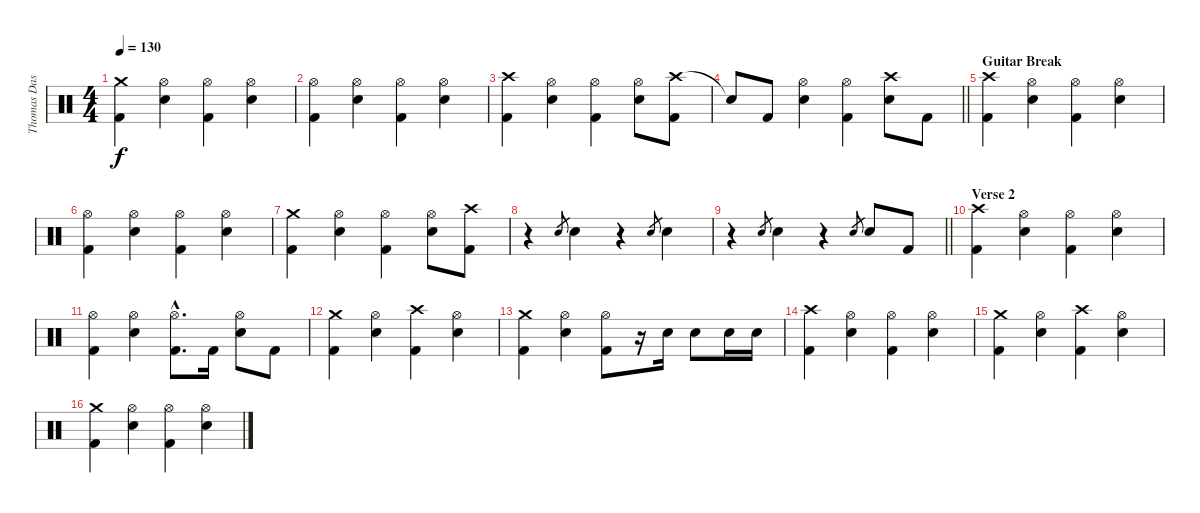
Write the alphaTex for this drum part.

\track ("Thomas Das Neves (Drums)" "Thomas Das") {instrument percussion}
\staff {score}
\articulation defaults
\ts (4 4)
\tempo 130
\clef neutral
\ks c
("Crash medium (hit)" "Kick (hit) 2").4{dy f} ("Hi-Hat (open)" "Snare (hit) 2").4 ("Hi-Hat (open)" "Kick (hit) 2").4 ("Hi-Hat (open)" "Snare (hit) 2").4 |
("Hi-Hat (open)" "Kick (hit) 2").4 ("Hi-Hat (open)" "Snare (hit) 2").4 ("Hi-Hat (open)" "Kick (hit) 2").4 ("Hi-Hat (open)" "Snare (hit) 2").4 |
("Crash high (hit)" "Kick (hit) 2").4 ("Hi-Hat (open)" "Snare (hit) 2").4 ("Hi-Hat (open)" "Kick (hit) 2").4 ("Hi-Hat (open)" "Snare (hit) 2").8 ("Crash high (hit)" "Kick (hit) 2").8 |
\barLineRight lightlight "Snare (hit)"{t}.8 "Kick (hit) 2".8
("Hi-Hat (open)" "Snare (hit) 2").4 ("Hi-Hat (open)" "Kick (hit) 2").4 ("Crash high (hit)" "Snare (hit) 2").8 "Kick (hit) 2".8 |
\section ("" "Guitar Break")
("Crash high (hit)" "Kick (hit) 2").4 ("Hi-Hat (open)" "Snare (hit) 2").4 ("Hi-Hat (open)" "Kick (hit) 2").4 ("Hi-Hat (open)" "Snare (hit) 2").4 |
("Hi-Hat (open)" "Kick (hit) 2").4 ("Hi-Hat (open)" "Snare (hit) 2").4 ("Hi-Hat (open)" "Kick (hit) 2").4 ("Hi-Hat (open)" "Snare (hit) 2").4 |
("Crash medium (hit)" "Kick (hit) 2").4 ("Hi-Hat (open)" "Snare (hit) 2").4 ("Hi-Hat (open)" "Kick (hit) 2").4 ("Hi-Hat (open)" "Snare (hit) 2").8 ("Crash high (hit)" "Kick (hit) 2").8 |
r.4 "Snare (hit) 2".8{gr} "Snare (hit) 2".4 r.4 "Snare (hit) 2".8{gr} "Snare (hit) 2".4 |
\barLineRight lightlight
r.4 "Snare (hit) 2".8{gr} "Snare (hit) 2".4 r.4 "Snare (hit) 2".8{gr} "Snare (hit) 2".8 "Kick (hit) 2".8 |
\section ("" "Verse 2")
("Crash high (hit)" "Kick (hit) 2").4 ("Hi-Hat (open)" "Snare (hit) 2").4 ("Hi-Hat (open)" "Kick (hit) 2").4 ("Hi-Hat (open)" "Snare (hit) 2").4 |
("Hi-Hat (open)" "Kick (hit) 2").4 ("Hi-Hat (open)" "Snare (hit) 2").4 ("Hi-Hat (open)"{hac} "Kick (hit) 2"{hac}).8{d} "Kick (hit) 2".16 ("Hi-Hat (open)" "Snare (hit) 2").8 "Kick (hit) 2".8 |
("Crash medium (hit)" "Kick (hit) 2").4 ("Hi-Hat (open)" "Snare (hit) 2").4 ("Crash high (hit)" "Kick (hit) 2").4 ("Hi-Hat (open)" "Snare (hit) 2").4 |
("Crash medium (hit)" "Kick (hit) 2").4 ("Hi-Hat (open)" "Snare (hit) 2").4 ("Hi-Hat (open)" "Kick (hit) 2").8 r.16 "Snare (hit) 2".16 "Snare (hit) 2".8 "Snare (hit) 2".16 "Snare (hit) 2".16 |
("Crash high (hit)" "Kick (hit) 2").4 ("Hi-Hat (open)" "Snare (hit) 2").4 ("Hi-Hat (open)" "Kick (hit) 2").4 ("Hi-Hat (open)" "Snare (hit) 2").4 |
("Crash medium (hit)" "Kick (hit) 2").4 ("Hi-Hat (open)" "Snare (hit) 2").4 ("Crash high (hit)" "Kick (hit) 2").4 ("Hi-Hat (open)" "Snare (hit) 2").4 |
("Crash medium (hit)" "Kick (hit) 2").4 ("Hi-Hat (open)" "Snare (hit) 2").4 ("Hi-Hat (open)" "Kick (hit) 2").4 ("Hi-Hat (open)" "Snare (hit) 2").4
